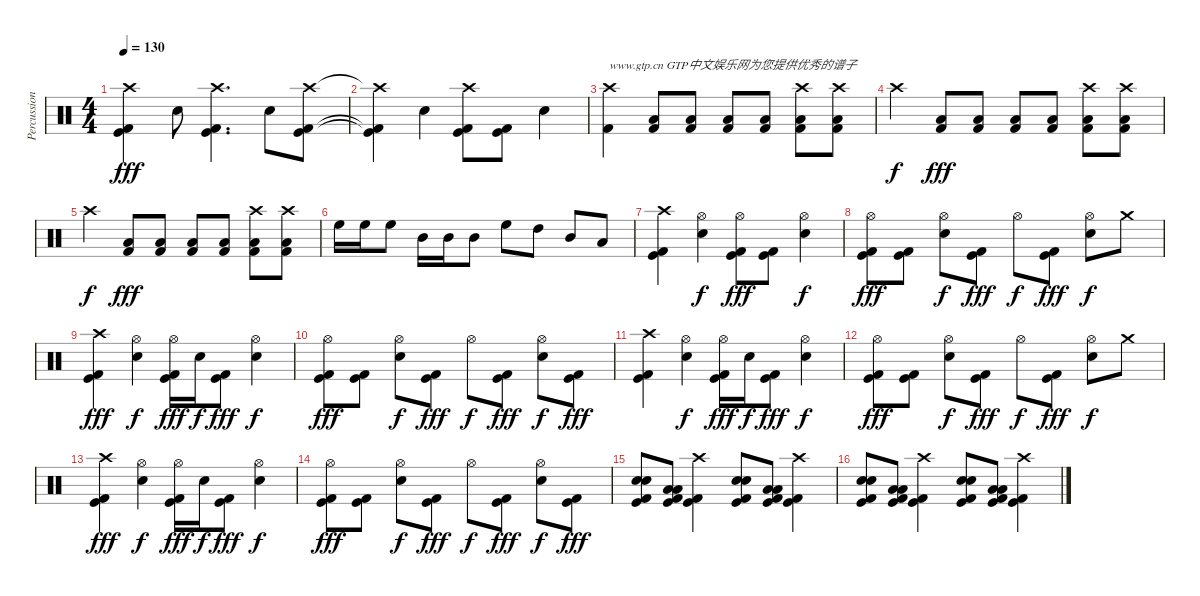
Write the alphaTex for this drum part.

\track ("Percussion" "Percussion") {instrument percussion}
\staff {score}
\articulation defaults
\ts (4 4)
\tempo 130
\clef neutral
\ks c
("Crash high (hit)" "Kick (hit)" "Kick (hit) 2").4{dy fff} "Snare (hit) 2".8 ("Crash high (hit)" "Kick (hit)" "Kick (hit) 2").4{d} "Snare (hit) 2".8 ("Crash high (hit)" "Kick (hit)" "Kick (hit) 2").8 |
("Crash high (hit)"{t} "Kick (hit)"{t} "Kick (hit) 2"{t}).4 "Snare (hit) 2".4 ("Crash high (hit)" "Kick (hit)" "Kick (hit) 2").8 ("Kick (hit)" "Kick (hit) 2").8 "Snare (hit) 2".4 |
("Crash high (hit)" "Kick (hit) 2").4{txt "www.gtp.cn GTP中文娱乐网为您提供优秀的谱子"} ("Low Tom (hit)" "Kick (hit) 2").8 ("Low Tom (hit)" "Kick (hit) 2").8 ("Low Tom (hit)" "Kick (hit) 2").8 ("Low Tom (hit)" "Kick (hit) 2").8 ("Crash high (hit)" "Low Tom (hit)" "Kick (hit) 2").8 ("Crash high (hit)" "Low Tom (hit)" "Kick (hit) 2").8 |
"Crash high (hit)".4{dy f} ("Low Tom (hit)" "Kick (hit) 2").8{dy fff} ("Low Tom (hit)" "Kick (hit) 2").8 ("Low Tom (hit)" "Kick (hit) 2").8 ("Low Tom (hit)" "Kick (hit) 2").8 ("Crash high (hit)" "Low Tom (hit)" "Kick (hit) 2").8 ("Crash high (hit)" "Low Tom (hit)" "Kick (hit) 2").8 |
"Crash high (hit)".4{dy f} ("Low Tom (hit)" "Kick (hit) 2").8{dy fff} ("Low Tom (hit)" "Kick (hit) 2").8 ("Low Tom (hit)" "Kick (hit) 2").8 ("Low Tom (hit)" "Kick (hit) 2").8 ("Crash high (hit)" "Low Tom (hit)" "Kick (hit) 2").8 ("Crash high (hit)" "Low Tom (hit)" "Kick (hit) 2").8 |
"High Floor Tom (hit)".16 "High Floor Tom (hit)".16 "High Floor Tom (hit)".8 "Mid Tom (hit)".16 "Mid Tom (hit)".16 "Mid Tom (hit)".8 "High Floor Tom (hit)".8 "High Tom (hit)".8 "Mid Tom (hit)".8 "Low Tom (hit)".8 |
("Crash high (hit)" "Kick (hit)" "Kick (hit) 2").4 ("Hi-Hat (open)" "Snare (hit) 2").4{dy f} ("Hi-Hat (open)" "Kick (hit)" "Kick (hit) 2").8{dy fff} ("Kick (hit)" "Kick (hit) 2").8 ("Hi-Hat (open)" "Snare (hit) 2").4{dy f} |
("Hi-Hat (open)" "Kick (hit)" "Kick (hit) 2").8{dy fff} ("Kick (hit)" "Kick (hit) 2").8 ("Hi-Hat (open)" "Snare (hit) 2").8{dy f} ("Kick (hit)" "Kick (hit) 2").8{dy fff} "Hi-Hat (open)".8{dy f} ("Kick (hit)" "Kick (hit) 2").8{dy fff} ("Hi-Hat (open)" "Snare (hit) 2").8{dy f} "Crash medium (hit)".8 |
("Crash high (hit)" "Kick (hit)" "Kick (hit) 2").4{dy fff} ("Hi-Hat (open)" "Snare (hit) 2").4{dy f} ("Hi-Hat (open)" "Kick (hit)" "Kick (hit) 2").16{dy fff} "Snare (hit) 2".16{dy f} ("Kick (hit)" "Kick (hit) 2").8{dy fff} ("Hi-Hat (open)" "Snare (hit) 2").4{dy f} |
("Hi-Hat (open)" "Kick (hit)" "Kick (hit) 2").8{dy fff} ("Kick (hit)" "Kick (hit) 2").8 ("Hi-Hat (open)" "Snare (hit) 2").8{dy f} ("Kick (hit)" "Kick (hit) 2").8{dy fff} "Hi-Hat (open)".8{dy f} ("Kick (hit)" "Kick (hit) 2").8{dy fff} ("Hi-Hat (open)" "Snare (hit) 2").8{dy f} ("Kick (hit)" "Kick (hit) 2").8{dy fff} |
("Crash high (hit)" "Kick (hit)" "Kick (hit) 2").4 ("Hi-Hat (open)" "Snare (hit) 2").4{dy f} ("Hi-Hat (open)" "Kick (hit)" "Kick (hit) 2").16{dy fff} "Snare (hit) 2".16{dy f} ("Kick (hit)" "Kick (hit) 2").8{dy fff} ("Hi-Hat (open)" "Snare (hit) 2").4{dy f} |
("Hi-Hat (open)" "Kick (hit)" "Kick (hit) 2").8{dy fff} ("Kick (hit)" "Kick (hit) 2").8 ("Hi-Hat (open)" "Snare (hit) 2").8{dy f} ("Kick (hit)" "Kick (hit) 2").8{dy fff} "Hi-Hat (open)".8{dy f} ("Kick (hit)" "Kick (hit) 2").8{dy fff} ("Hi-Hat (open)" "Snare (hit) 2").8{dy f} "Crash medium (hit)".8 |
("Crash high (hit)" "Kick (hit)" "Kick (hit) 2").4{dy fff} ("Hi-Hat (open)" "Snare (hit) 2").4{dy f} ("Hi-Hat (open)" "Kick (hit)" "Kick (hit) 2").16{dy fff} "Snare (hit) 2".16{dy f} ("Kick (hit)" "Kick (hit) 2").8{dy fff} ("Hi-Hat (open)" "Snare (hit) 2").4{dy f} |
("Hi-Hat (open)" "Kick (hit)" "Kick (hit) 2").8{dy fff} ("Kick (hit)" "Kick (hit) 2").8 ("Hi-Hat (open)" "Snare (hit) 2").8{dy f} ("Kick (hit)" "Kick (hit) 2").8{dy fff} "Hi-Hat (open)".8{dy f} ("Kick (hit)" "Kick (hit) 2").8{dy fff} ("Hi-Hat (open)" "Snare (hit) 2").8{dy f} ("Kick (hit)" "Kick (hit) 2").8{dy fff} |
("Snare (hit) 2" "Snare (hit) 2" "Kick (hit)" "Kick (hit) 2").8 ("Low Tom (hit)" "Low Tom (hit)" "Kick (hit)" "Kick (hit) 2").8 ("Crash high (hit)" "Kick (hit)" "Kick (hit) 2").4 ("Snare (hit) 2" "Snare (hit) 2" "Kick (hit)" "Kick (hit) 2").8 ("Low Tom (hit)" "Low Tom (hit)" "Kick (hit)" "Kick (hit) 2").8 ("Crash high (hit)" "Kick (hit)" "Kick (hit) 2").4 |
("Snare (hit) 2" "Snare (hit) 2" "Kick (hit)" "Kick (hit) 2").8 ("Low Tom (hit)" "Low Tom (hit)" "Kick (hit)" "Kick (hit) 2").8 ("Crash high (hit)" "Kick (hit)" "Kick (hit) 2").4 ("Snare (hit) 2" "Snare (hit) 2" "Kick (hit)" "Kick (hit) 2").8 ("Low Tom (hit)" "Low Tom (hit)" "Kick (hit)" "Kick (hit) 2").8 ("Crash high (hit)" "Kick (hit)" "Kick (hit) 2").4
